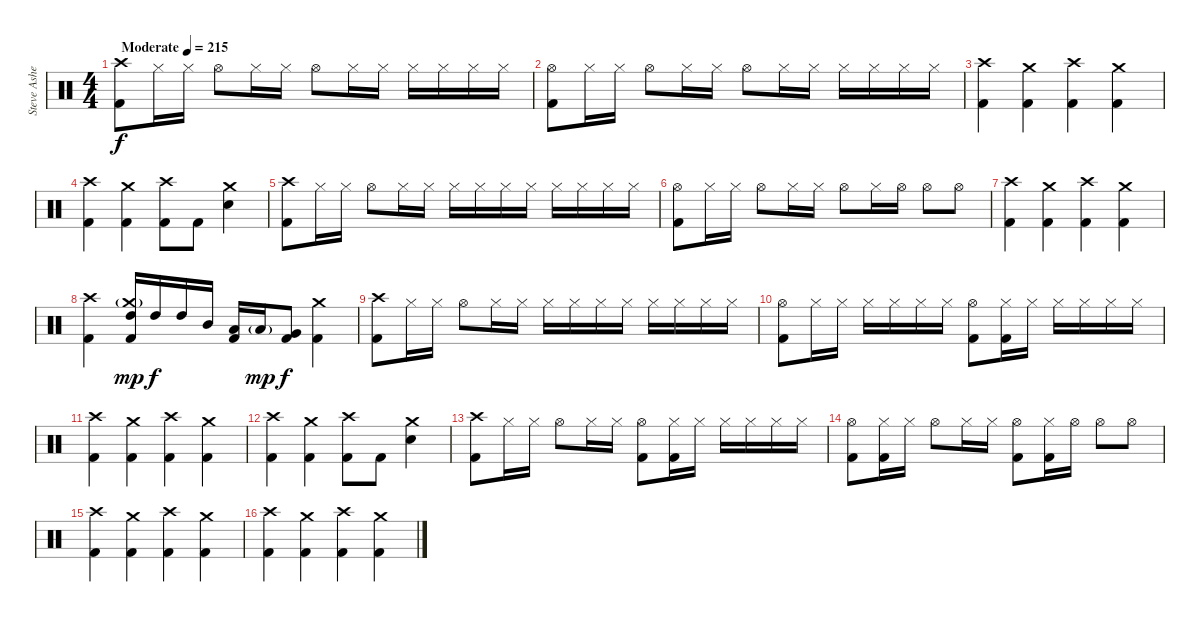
\track ("Steve Asheim" "Steve Ashe") {instrument percussion}
\staff {score}
\articulation defaults
\ts (4 4)
\tempo (215 "Moderate")
\clef neutral
\ks c
("Crash high (hit)" "Kick (hit) 2").8{dy f} "Hi-Hat (closed)".16 "Hi-Hat (closed)".16 "Hi-Hat (open)".8 "Hi-Hat (closed)".16 "Hi-Hat (closed)".16 "Hi-Hat (open)".8 "Hi-Hat (closed)".16 "Hi-Hat (closed)".16 "Hi-Hat (closed)".16 "Hi-Hat (closed)".16 "Hi-Hat (closed)".16 "Hi-Hat (closed)".16 |
("Hi-Hat (open)" "Kick (hit) 2").8 "Hi-Hat (closed)".16 "Hi-Hat (closed)".16 "Hi-Hat (open)".8 "Hi-Hat (closed)".16 "Hi-Hat (closed)".16 "Hi-Hat (open)".8 "Hi-Hat (closed)".16 "Hi-Hat (closed)".16 "Hi-Hat (closed)".16 "Hi-Hat (closed)".16 "Hi-Hat (closed)".16 "Hi-Hat (closed)".16 |
("Crash high (hit)" "Kick (hit) 2").4 ("Crash medium (hit)" "Kick (hit) 2").4 ("Crash high (hit)" "Kick (hit) 2").4 ("Crash medium (hit)" "Kick (hit) 2").4 |
("Crash high (hit)" "Kick (hit) 2").4 ("Crash medium (hit)" "Kick (hit) 2").4 ("Crash high (hit)" "Kick (hit) 2").8 "Kick (hit) 2".8 ("Crash medium (hit)" "Electric Snare (hit)").4 |
("Crash high (hit)" "Kick (hit) 2").8 "Hi-Hat (closed)".16 "Hi-Hat (closed)".16 "Hi-Hat (open)".8 "Hi-Hat (closed)".16 "Hi-Hat (closed)".16 "Hi-Hat (closed)".16 "Hi-Hat (closed)".16 "Hi-Hat (closed)".16 "Hi-Hat (closed)".16 "Hi-Hat (closed)".16 "Hi-Hat (closed)".16 "Hi-Hat (closed)".16 "Hi-Hat (closed)".16 |
("Hi-Hat (open)" "Kick (hit) 2").8 "Hi-Hat (closed)".16 "Hi-Hat (closed)".16 "Hi-Hat (open)".8 "Hi-Hat (closed)".16 "Hi-Hat (closed)".16 "Hi-Hat (open)".8 "Hi-Hat (closed)".16 "Hi-Hat (open)".16 "Hi-Hat (open)".8 "Hi-Hat (open)".8 |
("Crash high (hit)" "Kick (hit) 2").4 ("Crash medium (hit)" "Kick (hit) 2").4 ("Crash high (hit)" "Kick (hit) 2").4 ("Crash medium (hit)" "Kick (hit) 2").4 |
("Crash high (hit)" "Kick (hit) 2").4 ("Crash medium (hit)"{g} "High Tom (hit)" "Kick (hit) 2").16{dy mp} "High Tom (hit)".16{dy f} "High Tom (hit)".16 "Mid Tom (hit)".16 ("Low Tom (hit)" "Kick (hit) 2").16 "Low Tom (hit)"{g}.16{dy mp} ("Very Low Tom (hit)" "Kick (hit) 2").8{dy f} ("Crash medium (hit)" "Kick (hit) 2").4 |
("Crash high (hit)" "Kick (hit) 2").8 "Hi-Hat (closed)".16 "Hi-Hat (closed)".16 "Hi-Hat (open)".8 "Hi-Hat (closed)".16 "Hi-Hat (closed)".16 "Hi-Hat (closed)".16 "Hi-Hat (closed)".16 "Hi-Hat (closed)".16 "Hi-Hat (closed)".16 "Hi-Hat (closed)".16 "Hi-Hat (closed)".16 "Hi-Hat (closed)".16 "Hi-Hat (closed)".16 |
("Hi-Hat (open)" "Kick (hit) 2").8 "Hi-Hat (closed)".16 "Hi-Hat (closed)".16 "Hi-Hat (closed)".16 "Hi-Hat (closed)".16 "Hi-Hat (closed)".16 "Hi-Hat (closed)".16 ("Hi-Hat (open)" "Kick (hit) 2").8 ("Hi-Hat (closed)" "Kick (hit) 2").16 "Hi-Hat (closed)".16 "Hi-Hat (closed)".16 "Hi-Hat (closed)".16 "Hi-Hat (closed)".16 "Hi-Hat (closed)".16 |
("Crash high (hit)" "Kick (hit) 2").4 ("Crash medium (hit)" "Kick (hit) 2").4 ("Crash high (hit)" "Kick (hit) 2").4 ("Crash medium (hit)" "Kick (hit) 2").4 |
("Crash high (hit)" "Kick (hit) 2").4 ("Crash medium (hit)" "Kick (hit) 2").4 ("Crash high (hit)" "Kick (hit) 2").8 "Kick (hit) 2".8 ("Crash medium (hit)" "Electric Snare (hit)").4 |
("Crash high (hit)" "Kick (hit) 2").8 "Hi-Hat (closed)".16 "Hi-Hat (closed)".16 "Hi-Hat (open)".8 "Hi-Hat (closed)".16 "Hi-Hat (closed)".16 ("Hi-Hat (open)" "Kick (hit) 2").8 ("Hi-Hat (closed)" "Kick (hit) 2").16 "Hi-Hat (closed)".16 "Hi-Hat (closed)".16 "Hi-Hat (closed)".16 "Hi-Hat (closed)".16 "Hi-Hat (closed)".16 |
("Hi-Hat (open)" "Kick (hit) 2").8 ("Hi-Hat (closed)" "Kick (hit) 2").16 "Hi-Hat (closed)".16 "Hi-Hat (open)".8 "Hi-Hat (closed)".16 "Hi-Hat (closed)".16 ("Hi-Hat (open)" "Kick (hit) 2").8 ("Hi-Hat (closed)" "Kick (hit) 2").16 "Hi-Hat (open)".16 "Hi-Hat (open)".8 "Hi-Hat (open)".8 |
("Crash high (hit)" "Kick (hit) 2").4 ("Crash medium (hit)" "Kick (hit) 2").4 ("Crash high (hit)" "Kick (hit) 2").4 ("Crash medium (hit)" "Kick (hit) 2").4 |
("Crash high (hit)" "Kick (hit) 2").4 ("Crash medium (hit)" "Kick (hit) 2").4 ("Crash high (hit)" "Kick (hit) 2").4 ("Crash medium (hit)" "Kick (hit) 2").4
